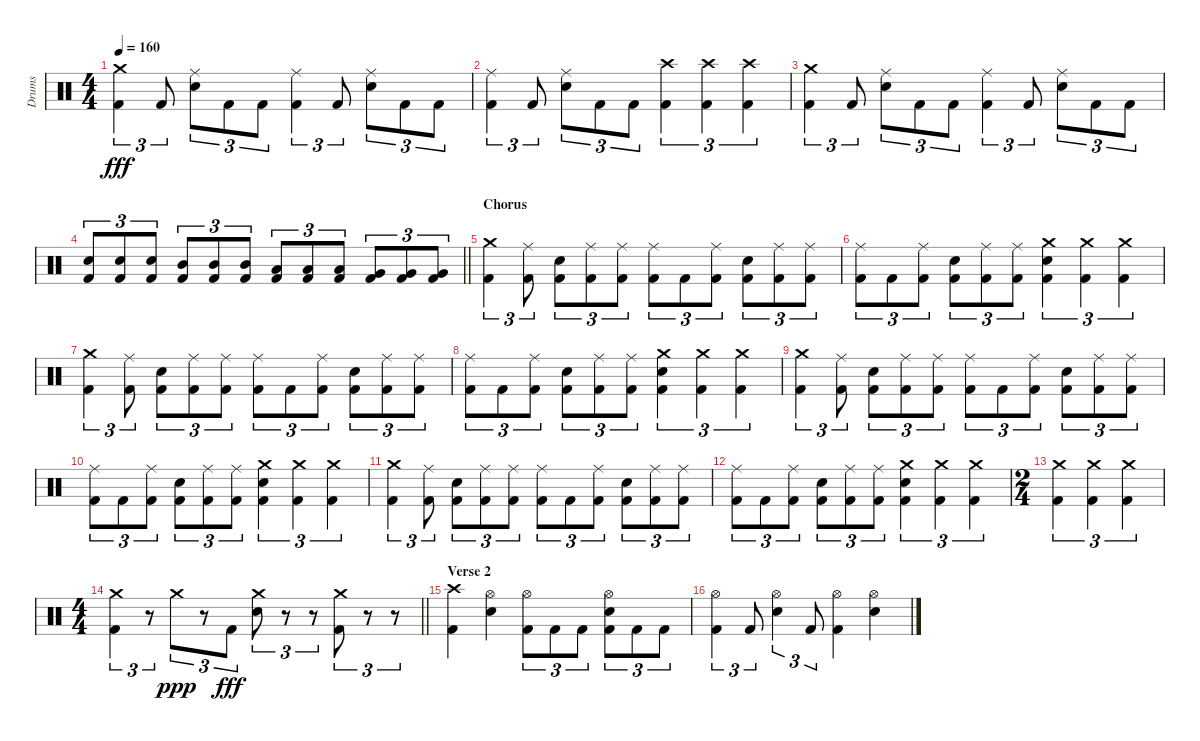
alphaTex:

\track ("Drums" "Drums") {instrument percussion}
\staff {score}
\articulation defaults
\ts (4 4)
\tempo 160
\clef neutral
\ks c
("Crash medium (hit)" "Kick (hit) 2").4{tu (3 2) dy fff} "Kick (hit) 2".8{tu (3 2)} ("Ride (middle)" "Snare (hit) 2").8{tu (3 2)} "Kick (hit) 2".8{tu (3 2)} "Kick (hit) 2".8{tu (3 2)} ("Ride (middle)" "Kick (hit) 2").4{tu (3 2)} "Kick (hit) 2".8{tu (3 2)} ("Ride (middle)" "Snare (hit) 2").8{tu (3 2)} "Kick (hit) 2".8{tu (3 2)} "Kick (hit) 2".8{tu (3 2)} |
("Ride (middle)" "Kick (hit) 2").4{tu (3 2)} "Kick (hit) 2".8{tu (3 2)} ("Ride (middle)" "Snare (hit) 2").8{tu (3 2)} "Kick (hit) 2".8{tu (3 2)} "Kick (hit) 2".8{tu (3 2)} ("Crash high (hit)" "Kick (hit) 2").4{tu (3 2)} ("Crash high (hit)" "Kick (hit) 2").4{tu (3 2)} ("Crash high (hit)" "Kick (hit) 2").4{tu (3 2)} |
("Crash medium (hit)" "Kick (hit) 2").4{tu (3 2)} "Kick (hit) 2".8{tu (3 2)} ("Ride (middle)" "Snare (hit) 2").8{tu (3 2)} "Kick (hit) 2".8{tu (3 2)} "Kick (hit) 2".8{tu (3 2)} ("Ride (middle)" "Kick (hit) 2").4{tu (3 2)} "Kick (hit) 2".8{tu (3 2)} ("Ride (middle)" "Snare (hit) 2").8{tu (3 2)} "Kick (hit) 2".8{tu (3 2)} "Kick (hit) 2".8{tu (3 2)} |
\barLineRight lightlight
("Snare (hit) 2" "Kick (hit) 2").8{tu (3 2)} ("Snare (hit) 2" "Kick (hit) 2").8{tu (3 2)} ("Snare (hit) 2" "Kick (hit) 2").8{tu (3 2)} ("Mid Tom (hit)" "Kick (hit) 2").8{tu (3 2)} ("Mid Tom (hit)" "Kick (hit) 2").8{tu (3 2)} ("Mid Tom (hit)" "Kick (hit) 2").8{tu (3 2)} ("Low Tom (hit)" "Kick (hit) 2").8{tu (3 2)} ("Low Tom (hit)" "Kick (hit) 2").8{tu (3 2)} ("Low Tom (hit)" "Kick (hit) 2").8{tu (3 2)} ("Very Low Tom (hit)" "Kick (hit) 2").8{tu (3 2)} ("Very Low Tom (hit)" "Kick (hit) 2").8{tu (3 2)} ("Very Low Tom (hit)" "Kick (hit) 2").8{tu (3 2)} |
\section ("" "Chorus")
("Crash medium (hit)" "Kick (hit) 2").4{tu (3 2)} ("Ride (middle)" "Kick (hit) 2").8{tu (3 2)} ("Snare (hit) 2" "Kick (hit) 2").8{tu (3 2)} ("Ride (middle)" "Kick (hit) 2").8{tu (3 2)} ("Ride (middle)" "Kick (hit) 2").8{tu (3 2)} ("Ride (middle)" "Kick (hit) 2").8{tu (3 2)} "Kick (hit) 2".8{tu (3 2)} ("Ride (middle)" "Kick (hit) 2").8{tu (3 2)} ("Snare (hit) 2" "Kick (hit) 2").8{tu (3 2)} ("Ride (middle)" "Kick (hit) 2").8{tu (3 2)} ("Ride (middle)" "Kick (hit) 2").8{tu (3 2)} |
("Ride (middle)" "Kick (hit) 2").8{tu (3 2)} "Kick (hit) 2".8{tu (3 2)} ("Ride (middle)" "Kick (hit) 2").8{tu (3 2)} ("Snare (hit) 2" "Kick (hit) 2").8{tu (3 2)} ("Ride (middle)" "Kick (hit) 2").8{tu (3 2)} ("Ride (middle)" "Kick (hit) 2").8{tu (3 2)} ("Crash medium (hit)" "Snare (hit) 2" "Kick (hit) 2").4{tu (3 2)} ("Crash medium (hit)" "Kick (hit) 2").4{tu (3 2)} ("Crash medium (hit)" "Kick (hit) 2").4{tu (3 2)} |
("Crash medium (hit)" "Kick (hit) 2").4{tu (3 2)} ("Ride (middle)" "Kick (hit) 2").8{tu (3 2)} ("Snare (hit) 2" "Kick (hit) 2").8{tu (3 2)} ("Ride (middle)" "Kick (hit) 2").8{tu (3 2)} ("Ride (middle)" "Kick (hit) 2").8{tu (3 2)} ("Ride (middle)" "Kick (hit) 2").8{tu (3 2)} "Kick (hit) 2".8{tu (3 2)} ("Ride (middle)" "Kick (hit) 2").8{tu (3 2)} ("Snare (hit) 2" "Kick (hit) 2").8{tu (3 2)} ("Ride (middle)" "Kick (hit) 2").8{tu (3 2)} ("Ride (middle)" "Kick (hit) 2").8{tu (3 2)} |
("Ride (middle)" "Kick (hit) 2").8{tu (3 2)} "Kick (hit) 2".8{tu (3 2)} ("Ride (middle)" "Kick (hit) 2").8{tu (3 2)} ("Snare (hit) 2" "Kick (hit) 2").8{tu (3 2)} ("Ride (middle)" "Kick (hit) 2").8{tu (3 2)} ("Ride (middle)" "Kick (hit) 2").8{tu (3 2)} ("Crash medium (hit)" "Snare (hit) 2" "Kick (hit) 2").4{tu (3 2)} ("Crash medium (hit)" "Kick (hit) 2").4{tu (3 2)} ("Crash medium (hit)" "Kick (hit) 2").4{tu (3 2)} |
("Crash medium (hit)" "Kick (hit) 2").4{tu (3 2)} ("Ride (middle)" "Kick (hit) 2").8{tu (3 2)} ("Snare (hit) 2" "Kick (hit) 2").8{tu (3 2)} ("Ride (middle)" "Kick (hit) 2").8{tu (3 2)} ("Ride (middle)" "Kick (hit) 2").8{tu (3 2)} ("Ride (middle)" "Kick (hit) 2").8{tu (3 2)} "Kick (hit) 2".8{tu (3 2)} ("Ride (middle)" "Kick (hit) 2").8{tu (3 2)} ("Snare (hit) 2" "Kick (hit) 2").8{tu (3 2)} ("Ride (middle)" "Kick (hit) 2").8{tu (3 2)} ("Ride (middle)" "Kick (hit) 2").8{tu (3 2)} |
("Ride (middle)" "Kick (hit) 2").8{tu (3 2)} "Kick (hit) 2".8{tu (3 2)} ("Ride (middle)" "Kick (hit) 2").8{tu (3 2)} ("Snare (hit) 2" "Kick (hit) 2").8{tu (3 2)} ("Ride (middle)" "Kick (hit) 2").8{tu (3 2)} ("Ride (middle)" "Kick (hit) 2").8{tu (3 2)} ("Crash medium (hit)" "Snare (hit) 2" "Kick (hit) 2").4{tu (3 2)} ("Crash medium (hit)" "Kick (hit) 2").4{tu (3 2)} ("Crash medium (hit)" "Kick (hit) 2").4{tu (3 2)} |
("Crash medium (hit)" "Kick (hit) 2").4{tu (3 2)} ("Ride (middle)" "Kick (hit) 2").8{tu (3 2)} ("Snare (hit) 2" "Kick (hit) 2").8{tu (3 2)} ("Ride (middle)" "Kick (hit) 2").8{tu (3 2)} ("Ride (middle)" "Kick (hit) 2").8{tu (3 2)} ("Ride (middle)" "Kick (hit) 2").8{tu (3 2)} "Kick (hit) 2".8{tu (3 2)} ("Ride (middle)" "Kick (hit) 2").8{tu (3 2)} ("Snare (hit) 2" "Kick (hit) 2").8{tu (3 2)} ("Ride (middle)" "Kick (hit) 2").8{tu (3 2)} ("Ride (middle)" "Kick (hit) 2").8{tu (3 2)} |
("Ride (middle)" "Kick (hit) 2").8{tu (3 2)} "Kick (hit) 2".8{tu (3 2)} ("Ride (middle)" "Kick (hit) 2").8{tu (3 2)} ("Snare (hit) 2" "Kick (hit) 2").8{tu (3 2)} ("Ride (middle)" "Kick (hit) 2").8{tu (3 2)} ("Ride (middle)" "Kick (hit) 2").8{tu (3 2)} ("Crash medium (hit)" "Snare (hit) 2" "Kick (hit) 2").4{tu (3 2)} ("Crash medium (hit)" "Kick (hit) 2").4{tu (3 2)} ("Crash medium (hit)" "Kick (hit) 2").4{tu (3 2)} |
\ts (2 4)
("Crash medium (hit)" "Kick (hit) 2").4{tu (3 2)} ("Crash medium (hit)" "Kick (hit) 2").4{tu (3 2)} ("Crash medium (hit)" "Kick (hit) 2").4{tu (3 2)} |
\ts (4 4)
\barLineRight lightlight
("Crash medium (hit)" "Kick (hit) 2").4{tu (3 2)} r.8{tu (3 2)} "Crash medium (hit)".8{tu (3 2) dy ppp} r.8{tu (3 2)} "Kick (hit) 2".8{tu (3 2) dy fff} ("Crash medium (hit)" "Snare (hit) 2").8{tu (3 2)} r.8{tu (3 2)} r.8{tu (3 2)} ("Crash medium (hit)" "Kick (hit) 2").8{tu (3 2)} r.8{tu (3 2)} r.8{tu (3 2)} |
\section ("" "Verse 2")
("Crash high (hit)" "Kick (hit) 2").4 ("Hi-Hat (open)" "Snare (hit) 2").4 ("Hi-Hat (open)" "Kick (hit) 2").8{tu (3 2)} "Kick (hit) 2".8{tu (3 2)} "Kick (hit) 2".8{tu (3 2)} ("Hi-Hat (open)" "Snare (hit) 2" "Kick (hit) 2").8{tu (3 2)} "Kick (hit) 2".8{tu (3 2)} "Kick (hit) 2".8{tu (3 2)} |
("Hi-Hat (open)" "Kick (hit) 2").4{tu (3 2)} "Kick (hit) 2".8{tu (3 2)} ("Hi-Hat (open)" "Snare (hit) 2").4{tu (3 2)} "Kick (hit) 2".8{tu (3 2)} ("Hi-Hat (open)" "Kick (hit) 2").4 ("Hi-Hat (open)" "Snare (hit) 2").4
